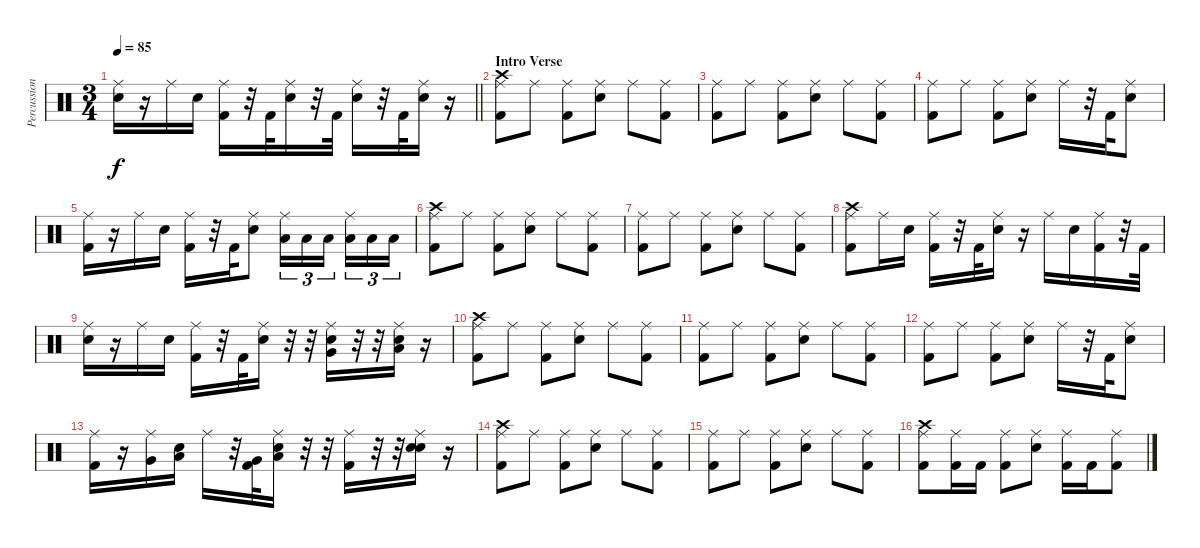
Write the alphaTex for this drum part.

\track ("Percussion" "Percussion") {instrument percussion}
\staff {score}
\articulation defaults
\ts (3 4)
\tempo 85
\clef neutral
\barLineRight lightlight
\ks c
("Ride (middle)" "Electric Snare (hit)").16{dy f} r.16 "Ride (middle)".16 "Electric Snare (hit)".16 ("Ride (middle)" "Kick (hit) 2").16 r.32 "Kick (hit) 2".32 ("Ride (middle)" "Electric Snare (hit)").16 r.32 "Kick (hit) 2".32 ("Ride (middle)" "Electric Snare (hit)").16 r.32 "Kick (hit) 2".32 ("Ride (middle)" "Electric Snare (hit)").16 r.16 |
\section ("" "Intro Verse")
("Ride (middle)" "Crash high (hit)" "Kick (hit) 2").8 "Ride (middle)".8 ("Ride (middle)" "Kick (hit) 2").8 ("Ride (middle)" "Electric Snare (hit)").8 "Ride (middle)".8 ("Ride (middle)" "Kick (hit) 2").8 |
("Ride (middle)" "Kick (hit) 2").8 "Ride (middle)".8 ("Ride (middle)" "Kick (hit) 2").8 ("Ride (middle)" "Electric Snare (hit)").8 "Ride (middle)".8 ("Ride (middle)" "Kick (hit) 2").8 |
("Ride (middle)" "Kick (hit) 2").8 "Ride (middle)".8 ("Ride (middle)" "Kick (hit) 2").8 ("Ride (middle)" "Electric Snare (hit)").8 "Ride (middle)".16 r.32 "Kick (hit) 2".32 ("Ride (middle)" "Electric Snare (hit)").8 |
("Ride (middle)" "Kick (hit) 2").16 r.16 "Ride (middle)".16 "Electric Snare (hit)".16 ("Ride (middle)" "Kick (hit) 2").16 r.32 "Kick (hit) 2".32 ("Ride (middle)" "Electric Snare (hit)").8 ("Ride (middle)" "Low Tom (hit)").16{tu (3 2)} "Low Tom (hit)".16{tu (3 2)} "Low Tom (hit)".16{tu (3 2) beam splitsecondary} ("Ride (middle)" "Low Tom (hit)").16{tu (3 2)} "Low Tom (hit)".16{tu (3 2)} "Low Tom (hit)".16{tu (3 2)} |
("Ride (middle)" "Crash high (hit)" "Kick (hit) 2").8 "Ride (middle)".8 ("Ride (middle)" "Kick (hit) 2").8 ("Ride (middle)" "Electric Snare (hit)").8 "Ride (middle)".8 ("Ride (middle)" "Kick (hit) 2").8 |
("Ride (middle)" "Kick (hit) 2").8 "Ride (middle)".8 ("Ride (middle)" "Kick (hit) 2").8 ("Ride (middle)" "Electric Snare (hit)").8 "Ride (middle)".8 ("Ride (middle)" "Kick (hit) 2").8 |
("Ride (middle)" "Crash high (hit)" "Kick (hit) 2").8 "Ride (middle)".16 "Electric Snare (hit)".16 ("Ride (middle)" "Kick (hit) 2").16 r.32 "Kick (hit) 2".32 ("Ride (middle)" "Electric Snare (hit)").16 r.16 "Ride (middle)".16 "Electric Snare (hit)".16 ("Ride (middle)" "Kick (hit) 2").16 r.32 "Kick (hit) 2".32 |
("Ride (middle)" "Electric Snare (hit)").16 r.16 "Ride (middle)".16 "Electric Snare (hit)".16 ("Ride (middle)" "Kick (hit) 2").16 r.32 "Kick (hit) 2".32 ("Ride (middle)" "Electric Snare (hit)").16 r.32 r.32 ("Ride (middle)" "Very Low Tom (hit)" "Electric Snare (hit)").16 r.32 r.32 ("Ride (middle)" "Low Floor Tom (hit)" "Electric Snare (hit)").16 r.16 |
("Ride (middle)" "Crash high (hit)" "Kick (hit) 2").8 "Ride (middle)".8 ("Ride (middle)" "Kick (hit) 2").8 ("Ride (middle)" "Electric Snare (hit)").8 "Ride (middle)".8 ("Ride (middle)" "Kick (hit) 2").8 |
("Ride (middle)" "Kick (hit) 2").8 "Ride (middle)".8 ("Ride (middle)" "Kick (hit) 2").8 ("Ride (middle)" "Electric Snare (hit)").8 "Ride (middle)".8 ("Ride (middle)" "Kick (hit) 2").8 |
("Ride (middle)" "Kick (hit) 2").8 "Ride (middle)".8 ("Ride (middle)" "Kick (hit) 2").8 ("Ride (middle)" "Electric Snare (hit)").8 "Ride (middle)".16 r.32 "Kick (hit) 2".32 ("Ride (middle)" "Electric Snare (hit)").8 |
("Ride (middle)" "Kick (hit) 2").16 r.16 ("Ride (middle)" "Very Low Tom (hit)").16 ("Electric Snare (hit)" "Low Tom (hit)").16 "Ride (middle)".16 r.32 ("Very Low Tom (hit)" "Kick (hit) 2").32 ("Ride (middle)" "Electric Snare (hit)" "Low Tom (hit)").16 r.32 r.32 ("Ride (middle)" "Kick (hit) 2").16 r.32 r.32 ("Ride (middle)" "Electric Snare (hit)" "Electric Snare (hit)").16 r.16 |
("Ride (middle)" "Crash high (hit)" "Kick (hit) 2").8 "Ride (middle)".8 ("Ride (middle)" "Kick (hit) 2").8 ("Ride (middle)" "Electric Snare (hit)").8 "Ride (middle)".8 ("Ride (middle)" "Kick (hit) 2").8 |
("Ride (middle)" "Kick (hit) 2").8 "Ride (middle)".8 ("Ride (middle)" "Kick (hit) 2").8 ("Ride (middle)" "Electric Snare (hit)").8 "Ride (middle)".8 ("Ride (middle)" "Kick (hit) 2").8 |
("Ride (middle)" "Crash high (hit)" "Kick (hit) 2").8 ("Ride (middle)" "Kick (hit) 2").16 "Kick (hit) 2".16 ("Ride (middle)" "Kick (hit) 2").8 ("Ride (middle)" "Electric Snare (hit)").8 ("Ride (middle)" "Kick (hit) 2").16 "Kick (hit) 2".16 ("Ride (middle)" "Kick (hit) 2").8
